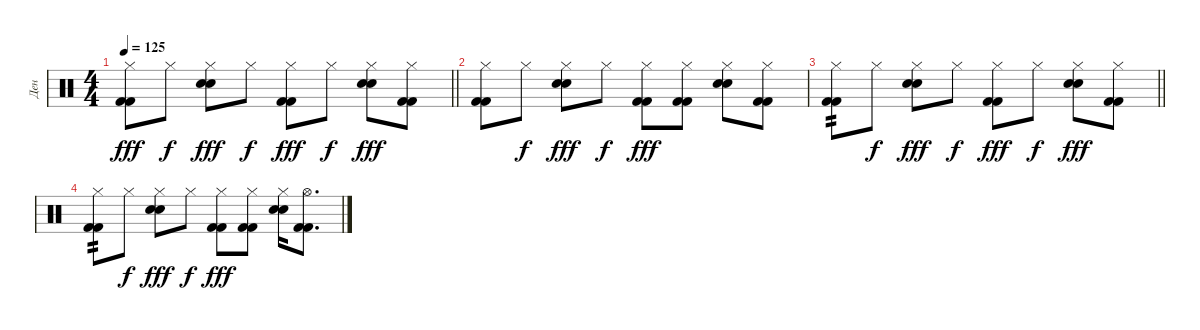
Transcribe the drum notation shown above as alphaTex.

\track ("Ден" "Ден") {instrument percussion}
\staff {score}
\articulation defaults
\ts (4 4)
\tempo 125
\clef neutral
\barLineRight lightlight
\ks c
("Hi-Hat (closed)" "Kick (hit) 2" "Kick (hit) 2").8{dy fff} "Hi-Hat (closed)".8{dy f} ("Hi-Hat (closed)" "Electric Snare (hit)" "Electric Snare (hit)").8{dy fff} "Hi-Hat (closed)".8{dy f} ("Hi-Hat (closed)" "Kick (hit) 2" "Kick (hit) 2").8{dy fff} "Hi-Hat (closed)".8{dy f} ("Hi-Hat (closed)" "Electric Snare (hit)" "Electric Snare (hit)").8{dy fff} ("Hi-Hat (closed)" "Kick (hit) 2" "Kick (hit) 2").8 |
("Hi-Hat (closed)" "Kick (hit) 2" "Kick (hit) 2").8 "Hi-Hat (closed)".8{dy f} ("Hi-Hat (closed)" "Electric Snare (hit)" "Electric Snare (hit)").8{dy fff} "Hi-Hat (closed)".8{dy f} ("Hi-Hat (closed)" "Kick (hit) 2" "Kick (hit) 2").8{dy fff} ("Hi-Hat (closed)" "Kick (hit) 2" "Kick (hit) 2").8 ("Hi-Hat (closed)" "Electric Snare (hit)" "Electric Snare (hit)").8 ("Hi-Hat (closed)" "Kick (hit) 2" "Kick (hit) 2").8 |
\barLineRight lightlight
("Hi-Hat (closed)" "Kick (hit) 2" "Kick (hit) 2").8{tp 2} "Hi-Hat (closed)".8{dy f} ("Hi-Hat (closed)" "Electric Snare (hit)" "Electric Snare (hit)").8{dy fff} "Hi-Hat (closed)".8{dy f} ("Hi-Hat (closed)" "Kick (hit) 2" "Kick (hit) 2").8{dy fff} "Hi-Hat (closed)".8{dy f} ("Hi-Hat (closed)" "Electric Snare (hit)" "Electric Snare (hit)").8{dy fff} ("Hi-Hat (closed)" "Kick (hit) 2" "Kick (hit) 2").8 |
("Hi-Hat (closed)" "Kick (hit) 2" "Kick (hit) 2").8{tp 2} "Hi-Hat (closed)".8{dy f} ("Hi-Hat (closed)" "Electric Snare (hit)" "Electric Snare (hit)").8{dy fff} "Hi-Hat (closed)".8{dy f} ("Hi-Hat (closed)" "Kick (hit) 2" "Kick (hit) 2").8{dy fff} ("Hi-Hat (closed)" "Kick (hit) 2" "Kick (hit) 2").8 ("Hi-Hat (closed)" "Electric Snare (hit)" "Electric Snare (hit)").16 ("Hi-Hat (open)" "Kick (hit) 2" "Kick (hit) 2").8{d}
